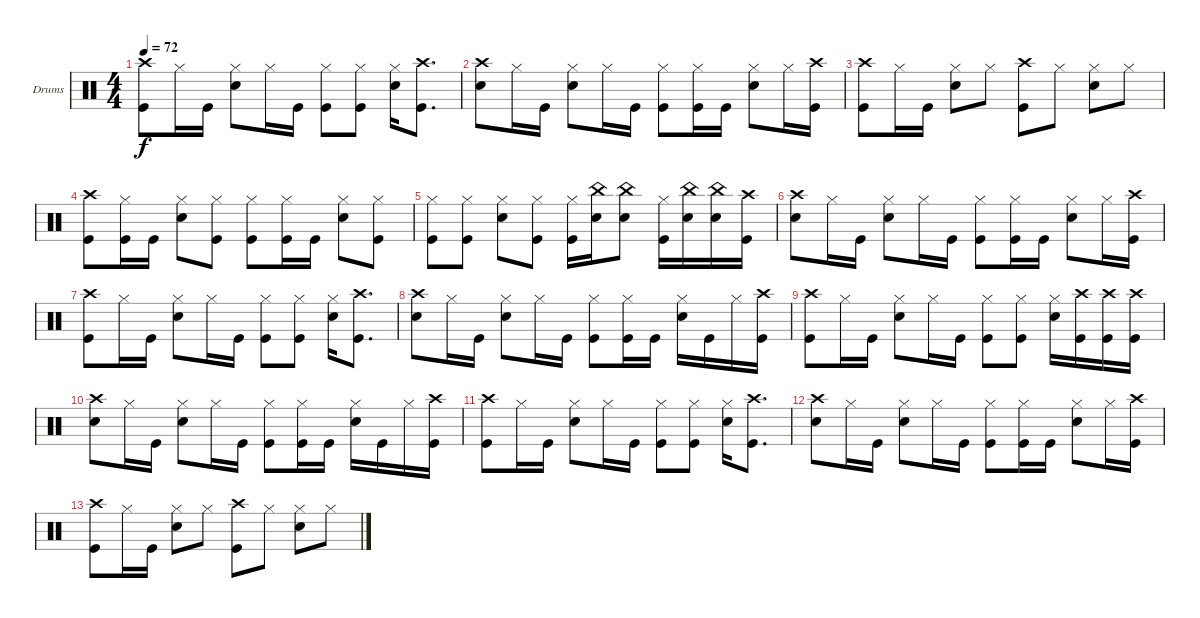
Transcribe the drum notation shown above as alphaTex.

\defaultSystemsLayout 4
\bracketExtendMode groupsimilarinstruments
\firstSystemTrackNameOrientation horizontal
\otherSystemsTrackNameOrientation horizontal
\track ("Drumkit" "Drums") {instrument percussion}
\staff {score}
\articulation defaults
\ts (4 4)
\tempo 72
\clef neutral
\ks c
("Crash high (hit)" "Kick (hit)").8{dy f} "Hi-Hat (closed)".16 "Kick (hit)".16 ("Hi-Hat (closed)" "Snare (hit) 2").8 "Hi-Hat (closed)".16 "Kick (hit)".16 ("Hi-Hat (closed)" "Kick (hit)").8 ("Hi-Hat (closed)" "Kick (hit)").8 ("Hi-Hat (closed)" "Snare (hit) 2").16 ("Crash high (hit)" "Kick (hit)").8{d} |
("Crash high (hit)" "Snare (hit) 2").8 "Hi-Hat (closed)".16 "Kick (hit)".16 ("Hi-Hat (closed)" "Snare (hit) 2").8 "Hi-Hat (closed)".16 "Kick (hit)".16 ("Hi-Hat (closed)" "Kick (hit)").8 ("Hi-Hat (closed)" "Kick (hit)").16 "Kick (hit)".16 ("Hi-Hat (closed)" "Snare (hit) 2").8 "Hi-Hat (closed)".16 ("Crash high (hit)" "Kick (hit)").16 |
("Crash high (hit)" "Kick (hit)").8 "Hi-Hat (closed)".16 "Kick (hit)".16 ("Hi-Hat (closed)" "Snare (hit) 2").8 "Hi-Hat (closed)".8 ("Crash high (hit)" "Kick (hit)").8 "Hi-Hat (closed)".8 ("Hi-Hat (closed)" "Snare (hit) 2").8 "Hi-Hat (closed)".8 |
("Crash high (hit)" "Kick (hit)").8 ("Hi-Hat (closed)" "Kick (hit)").16 "Kick (hit)".16 ("Hi-Hat (closed)" "Snare (hit) 2").8 ("Hi-Hat (closed)" "Kick (hit)").8 ("Hi-Hat (closed)" "Kick (hit)").8 ("Hi-Hat (closed)" "Kick (hit)").16 "Kick (hit)".16 ("Hi-Hat (closed)" "Snare (hit) 2").8 ("Hi-Hat (closed)" "Kick (hit)").8 |
("Hi-Hat (closed)" "Kick (hit)").8 ("Hi-Hat (closed)" "Kick (hit)").8 ("Hi-Hat (closed)" "Snare (hit) 2").8 ("Hi-Hat (closed)" "Kick (hit)").8 ("Hi-Hat (closed)" "Kick (hit)").16 ("China (hit)" "Snare (hit) 2").16 ("China (hit)" "Snare (hit) 2").8 ("Hi-Hat (closed)" "Kick (hit)").16 ("China (hit)" "Snare (hit) 2").16 ("China (hit)" "Snare (hit) 2").16 ("Crash high (hit)" "Kick (hit)").16 |
("Crash high (hit)" "Snare (hit) 2").8 "Hi-Hat (closed)".16 "Kick (hit)".16 ("Hi-Hat (closed)" "Snare (hit) 2").8 "Hi-Hat (closed)".16 "Kick (hit)".16 ("Hi-Hat (closed)" "Kick (hit)").8 ("Hi-Hat (closed)" "Kick (hit)").16 "Kick (hit)".16 ("Hi-Hat (closed)" "Snare (hit) 2").8 "Hi-Hat (closed)".16 ("Crash high (hit)" "Kick (hit)").16 |
("Crash high (hit)" "Kick (hit)").8 "Hi-Hat (closed)".16 "Kick (hit)".16 ("Hi-Hat (closed)" "Snare (hit) 2").8 "Hi-Hat (closed)".16 "Kick (hit)".16 ("Hi-Hat (closed)" "Kick (hit)").8 ("Hi-Hat (closed)" "Kick (hit)").8 ("Hi-Hat (closed)" "Snare (hit) 2").16 ("Crash high (hit)" "Kick (hit)").8{d} |
("Crash high (hit)" "Snare (hit) 2").8 "Hi-Hat (closed)".16 "Kick (hit)".16 ("Hi-Hat (closed)" "Snare (hit) 2").8 "Hi-Hat (closed)".16 "Kick (hit)".16 ("Hi-Hat (closed)" "Kick (hit)").8 ("Hi-Hat (closed)" "Kick (hit)").16 "Kick (hit)".16 ("Hi-Hat (closed)" "Snare (hit) 2").16 "Kick (hit)".16 "Hi-Hat (closed)".16 ("Crash high (hit)" "Kick (hit)").16 |
("Crash high (hit)" "Kick (hit)").8 "Hi-Hat (closed)".16 "Kick (hit)".16 ("Hi-Hat (closed)" "Snare (hit) 2").8 "Hi-Hat (closed)".16 "Kick (hit)".16 ("Hi-Hat (closed)" "Kick (hit)").8 ("Hi-Hat (closed)" "Kick (hit)").8 ("Hi-Hat (closed)" "Snare (hit) 2").16 ("Crash high (hit)" "Kick (hit)").16 ("Crash high (hit)" "Kick (hit)").16 ("Crash high (hit)" "Kick (hit)").16 |
("Crash high (hit)" "Snare (hit) 2").8 "Hi-Hat (closed)".16 "Kick (hit)".16 ("Hi-Hat (closed)" "Snare (hit) 2").8 "Hi-Hat (closed)".16 "Kick (hit)".16 ("Hi-Hat (closed)" "Kick (hit)").8 ("Hi-Hat (closed)" "Kick (hit)").16 "Kick (hit)".16 ("Hi-Hat (closed)" "Snare (hit) 2").16 "Kick (hit)".16 "Hi-Hat (closed)".16 ("Crash high (hit)" "Kick (hit)").16 |
("Crash high (hit)" "Kick (hit)").8 "Hi-Hat (closed)".16 "Kick (hit)".16 ("Hi-Hat (closed)" "Snare (hit) 2").8 "Hi-Hat (closed)".16 "Kick (hit)".16 ("Hi-Hat (closed)" "Kick (hit)").8 ("Hi-Hat (closed)" "Kick (hit)").8 ("Hi-Hat (closed)" "Snare (hit) 2").16 ("Crash high (hit)" "Kick (hit)").8{d} |
("Crash high (hit)" "Snare (hit) 2").8 "Hi-Hat (closed)".16 "Kick (hit)".16 ("Hi-Hat (closed)" "Snare (hit) 2").8 "Hi-Hat (closed)".16 "Kick (hit)".16 ("Hi-Hat (closed)" "Kick (hit)").8 ("Hi-Hat (closed)" "Kick (hit)").16 "Kick (hit)".16 ("Hi-Hat (closed)" "Snare (hit) 2").8 "Hi-Hat (closed)".16 ("Crash high (hit)" "Kick (hit)").16 |
("Crash high (hit)" "Kick (hit)").8 "Hi-Hat (closed)".16 "Kick (hit)".16 ("Hi-Hat (closed)" "Snare (hit) 2").8 "Hi-Hat (closed)".8 ("Crash high (hit)" "Kick (hit)").8 "Hi-Hat (closed)".8 ("Hi-Hat (closed)" "Snare (hit) 2").8 "Hi-Hat (closed)".8
